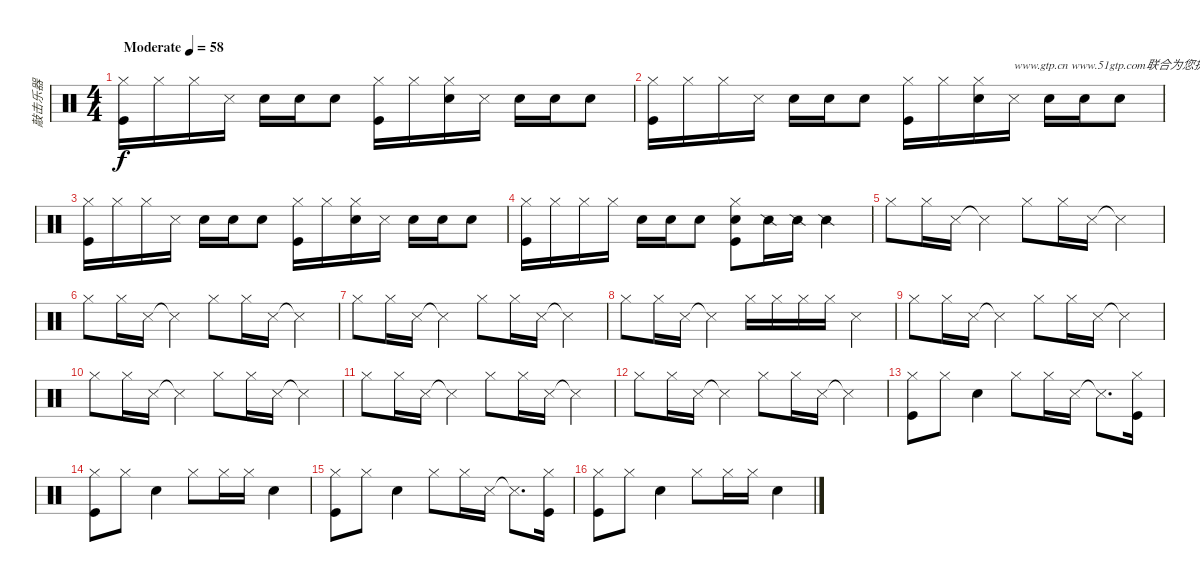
\track ("敲击乐器" "敲击乐器") {instrument percussion}
\staff {score}
\articulation defaults
\ts (4 4)
\tempo (58 "Moderate")
\clef neutral
\ks c
("Hi-Hat (closed)" "Kick (hit)").16{dy f} "Hi-Hat (closed)".16 "Hi-Hat (closed)".16 "Snare (side stick) 3".16 "Hand Clap (hit)".16 "Hand Clap (hit)".16 "Hand Clap (hit)".8 ("Hi-Hat (closed)" "Kick (hit)").16 "Hi-Hat (closed)".16 ("Hi-Hat (closed)" "Snare (hit) 2").16 "Snare (side stick) 3".16 "Hand Clap (hit)".16 "Hand Clap (hit)".16 "Hand Clap (hit)".8 |
("Hi-Hat (closed)" "Kick (hit)").16 "Hi-Hat (closed)".16 "Hi-Hat (closed)".16 "Snare (side stick) 3".16 "Hand Clap (hit)".16 "Hand Clap (hit)".16 "Hand Clap (hit)".8 ("Hi-Hat (closed)" "Kick (hit)").16 "Hi-Hat (closed)".16 ("Hi-Hat (closed)" "Snare (hit) 2").16 "Snare (side stick) 3".16{txt "www.gtp.cn www.51gtp.com联合为您提供优秀的GTP!"} "Hand Clap (hit)".16 "Hand Clap (hit)".16 "Hand Clap (hit)".8 |
("Hi-Hat (closed)" "Kick (hit)").16 "Hi-Hat (closed)".16 "Hi-Hat (closed)".16 "Snare (side stick) 3".16 "Hand Clap (hit)".16 "Hand Clap (hit)".16 "Hand Clap (hit)".8 ("Hi-Hat (closed)" "Kick (hit)").16 "Hi-Hat (closed)".16 ("Hi-Hat (closed)" "Snare (hit) 2").16 "Snare (side stick) 3".16 "Hand Clap (hit)".16 "Hand Clap (hit)".16 "Hand Clap (hit)".8 |
("Hi-Hat (closed)" "Kick (hit)").16 "Hi-Hat (closed)".16 "Hi-Hat (closed)".16 "Hi-Hat (closed)".16 "Hand Clap (hit)".16 "Hand Clap (hit)".16 "Hand Clap (hit)".8 ("Hi-Hat (closed)" "Snare (hit) 2" "Kick (hit)").8 "Snare (side stick) 2".16 "Snare (side stick) 2".16 "Snare (side stick) 2".4 |
"Hi-Hat (closed)".8 "Hi-Hat (closed)".16 "Snare (side stick) 3".16 "Snare (side stick) 3"{t}.4 "Hi-Hat (closed)".8 "Hi-Hat (closed)".16 "Snare (side stick) 3".16 "Snare (side stick) 3"{t}.4 |
"Hi-Hat (closed)".8 "Hi-Hat (closed)".16 "Snare (side stick) 3".16 "Snare (side stick) 3"{t}.4 "Hi-Hat (closed)".8 "Hi-Hat (closed)".16 "Snare (side stick) 3".16 "Snare (side stick) 3"{t}.4 |
"Hi-Hat (closed)".8 "Hi-Hat (closed)".16 "Snare (side stick) 3".16 "Snare (side stick) 3"{t}.4 "Hi-Hat (closed)".8 "Hi-Hat (closed)".16 "Snare (side stick) 3".16 "Snare (side stick) 3"{t}.4 |
"Hi-Hat (closed)".8 "Hi-Hat (closed)".16 "Snare (side stick) 3".16 "Snare (side stick) 3"{t}.4 "Hi-Hat (closed)".16 "Hi-Hat (closed)".16 "Hi-Hat (closed)".16 "Hi-Hat (closed)".16 "Snare (side stick) 3".4 |
"Hi-Hat (closed)".8 "Hi-Hat (closed)".16 "Snare (side stick) 3".16 "Snare (side stick) 3"{t}.4 "Hi-Hat (closed)".8 "Hi-Hat (closed)".16 "Snare (side stick) 3".16 "Snare (side stick) 3"{t}.4 |
"Hi-Hat (closed)".8 "Hi-Hat (closed)".16 "Snare (side stick) 3".16 "Snare (side stick) 3"{t}.4 "Hi-Hat (closed)".8 "Hi-Hat (closed)".16 "Snare (side stick) 3".16 "Snare (side stick) 3"{t}.4 |
"Hi-Hat (closed)".8 "Hi-Hat (closed)".16 "Snare (side stick) 3".16 "Snare (side stick) 3"{t}.4 "Hi-Hat (closed)".8 "Hi-Hat (closed)".16 "Snare (side stick) 3".16 "Snare (side stick) 3"{t}.4 |
"Hi-Hat (closed)".8 "Hi-Hat (closed)".16 "Snare (side stick) 3".16 "Snare (side stick) 3"{t}.4 "Hi-Hat (closed)".8 "Hi-Hat (closed)".16 "Snare (side stick) 3".16 "Snare (side stick) 3"{t}.4 |
("Hi-Hat (closed)" "Kick (hit)").8 "Hi-Hat (closed)".8 "Hand Clap (hit)".4 "Hi-Hat (closed)".8 "Hi-Hat (closed)".16 "Snare (side stick) 3".16 "Snare (side stick) 3"{t}.8{d} ("Hi-Hat (closed)" "Kick (hit)").16 |
("Hi-Hat (closed)" "Kick (hit)").8 "Hi-Hat (closed)".8 "Hand Clap (hit)".4 "Hi-Hat (closed)".8 "Hi-Hat (closed)".16 "Hi-Hat (closed)".16 "Hand Clap (hit)".4 |
("Hi-Hat (closed)" "Kick (hit)").8 "Hi-Hat (closed)".8 "Hand Clap (hit)".4 "Hi-Hat (closed)".8 "Hi-Hat (closed)".16 "Snare (side stick) 3".16 "Snare (side stick) 3"{t}.8{d} ("Hi-Hat (closed)" "Kick (hit)").16 |
("Hi-Hat (closed)" "Kick (hit)").8 "Hi-Hat (closed)".8 "Hand Clap (hit)".4 "Hi-Hat (closed)".8 "Hi-Hat (closed)".16 "Hi-Hat (closed)".16 "Hand Clap (hit)".4
